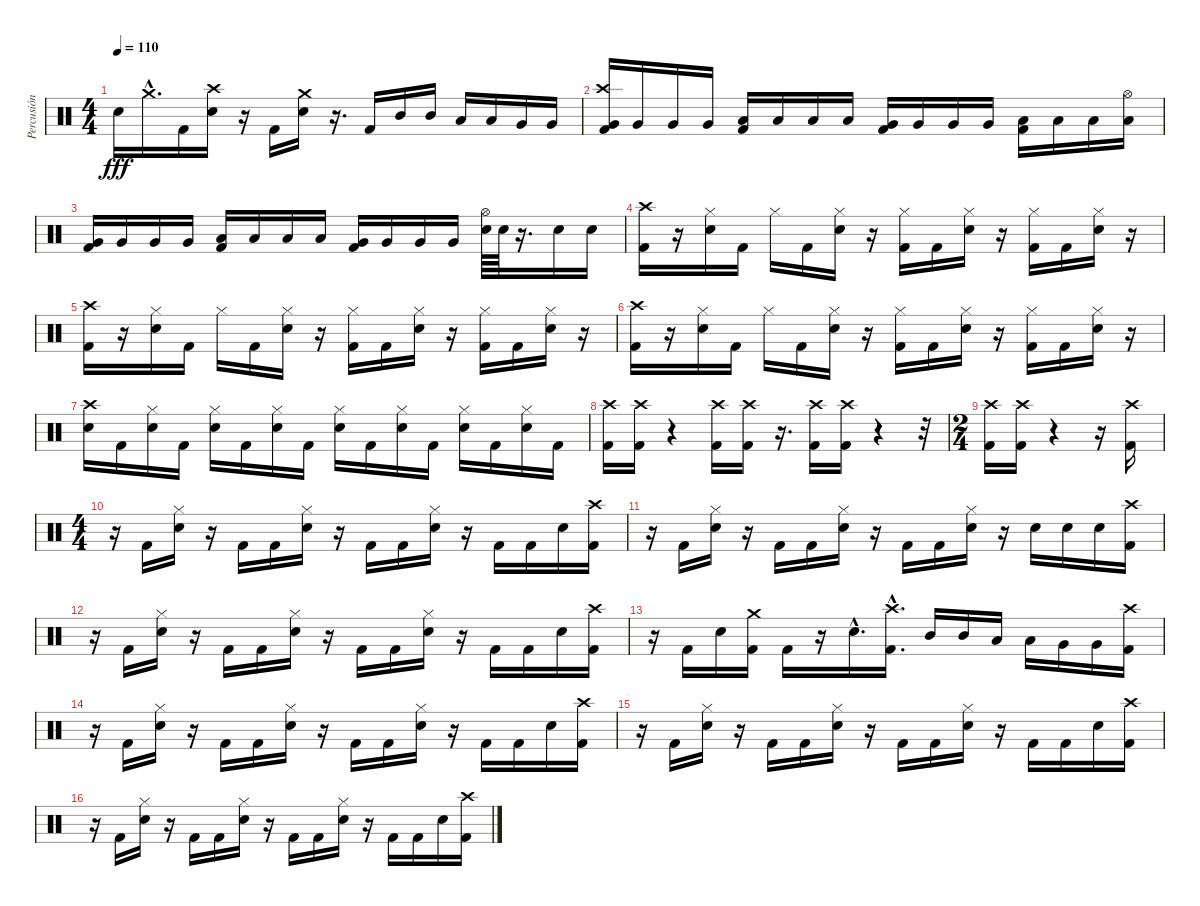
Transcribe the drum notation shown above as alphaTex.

\track ("Percusión" "Percusión") {instrument percussion}
\staff {score}
\articulation defaults
\ts (4 4)
\tempo 110
\clef neutral
\ks c "Electric Snare (hit)".16{dy fff} "Crash medium (hit)"{hac}.16{d} "Kick (hit) 2".16
("Electric Snare (hit)" "Crash high (hit)").16 r.16 "Kick (hit) 2".16 ("Electric Snare (hit)" "Crash medium (hit)").16 r.16{d} "Kick (hit) 2".16 "Mid Tom (hit)".16 "Mid Tom (hit)".16 "Low Tom (hit)".16 "Low Tom (hit)".16 "Very Low Tom (hit)".16 "Very Low Tom (hit)".16 |
("Crash high (hit)" "Kick (hit) 2" "Very Low Tom (hit)").16 "Very Low Tom (hit)".16 "Very Low Tom (hit)".16 "Very Low Tom (hit)".16 ("Kick (hit) 2" "Low Tom (hit)").16 "Low Tom (hit)".16 "Low Tom (hit)".16 "Low Tom (hit)".16 ("Kick (hit) 2" "Very Low Tom (hit)").16 "Very Low Tom (hit)".16 "Very Low Tom (hit)".16 "Very Low Tom (hit)".16 ("Kick (hit) 2" "Low Tom (hit)").16 "Low Tom (hit)".16 "Low Tom (hit)".16 ("Hi-Hat (open)" "Low Tom (hit)").16 |
("Kick (hit) 2" "Very Low Tom (hit)").16 "Very Low Tom (hit)".16 "Very Low Tom (hit)".16 "Very Low Tom (hit)".16 ("Kick (hit) 2" "Low Tom (hit)").16 "Low Tom (hit)".16 "Low Tom (hit)".16 "Low Tom (hit)".16 ("Kick (hit) 2" "Very Low Tom (hit)").16 "Very Low Tom (hit)".16 "Very Low Tom (hit)".16 "Very Low Tom (hit)".16 ("Electric Snare (hit)" "Hi-Hat (open)").64 "Electric Snare (hit)".64 r.16{d} "Electric Snare (hit)".16 "Electric Snare (hit)".16 |
("Kick (hit) 2" "Crash high (hit)").16 r.16 ("Electric Snare (hit)" "Hi-Hat (closed)").16 "Kick (hit) 2".16 "Hi-Hat (closed)".16 "Kick (hit) 2".16 ("Electric Snare (hit)" "Hi-Hat (closed)").16 r.16 ("Kick (hit) 2" "Hi-Hat (closed)").16 "Kick (hit) 2".16 ("Electric Snare (hit)" "Hi-Hat (closed)").16 r.16 ("Kick (hit) 2" "Hi-Hat (closed)").16 "Kick (hit) 2".16 ("Electric Snare (hit)" "Hi-Hat (closed)").16 r.16 |
("Kick (hit) 2" "Crash high (hit)").16 r.16 ("Electric Snare (hit)" "Hi-Hat (closed)").16 "Kick (hit) 2".16 "Hi-Hat (closed)".16 "Kick (hit) 2".16 ("Electric Snare (hit)" "Hi-Hat (closed)").16 r.16 ("Kick (hit) 2" "Hi-Hat (closed)").16 "Kick (hit) 2".16 ("Electric Snare (hit)" "Hi-Hat (closed)").16 r.16 ("Kick (hit) 2" "Hi-Hat (closed)").16 "Kick (hit) 2".16 ("Electric Snare (hit)" "Hi-Hat (closed)").16 r.16 |
("Kick (hit) 2" "Crash high (hit)").16 r.16 ("Electric Snare (hit)" "Hi-Hat (closed)").16 "Kick (hit) 2".16 "Hi-Hat (closed)".16 "Kick (hit) 2".16 ("Electric Snare (hit)" "Hi-Hat (closed)").16 r.16 ("Kick (hit) 2" "Hi-Hat (closed)").16 "Kick (hit) 2".16 ("Electric Snare (hit)" "Hi-Hat (closed)").16 r.16 ("Kick (hit) 2" "Hi-Hat (closed)").16 "Kick (hit) 2".16 ("Electric Snare (hit)" "Hi-Hat (closed)").16 r.16 |
("Crash high (hit)" "Electric Snare (hit)").16 "Kick (hit) 2".16 ("Hi-Hat (closed)" "Electric Snare (hit)").16 "Kick (hit) 2".16 ("Hi-Hat (closed)" "Electric Snare (hit)").16 "Kick (hit) 2".16 ("Hi-Hat (closed)" "Electric Snare (hit)").16 "Kick (hit) 2".16 ("Hi-Hat (closed)" "Electric Snare (hit)").16 "Kick (hit) 2".16 ("Hi-Hat (closed)" "Electric Snare (hit)").16 "Kick (hit) 2".16 ("Hi-Hat (closed)" "Electric Snare (hit)").16 "Kick (hit) 2".16 ("Hi-Hat (closed)" "Electric Snare (hit)").16 "Kick (hit) 2".16 |
("Kick (hit) 2" "Crash high (hit)").16 ("Kick (hit) 2" "Crash high (hit)").16 r.4 ("Kick (hit) 2" "Crash high (hit)").16 ("Kick (hit) 2" "Crash high (hit)").16 r.16{d} ("Kick (hit) 2" "Crash high (hit)").16 ("Kick (hit) 2" "Crash high (hit)").16 r.4 r.32 |
\ts (2 4)
("Kick (hit) 2" "Crash high (hit)").16 ("Kick (hit) 2" "Crash high (hit)").16 r.4 r.16 ("Kick (hit) 2" "Crash high (hit)").16 |
\ts (4 4)
r.16 "Kick (hit) 2".16 ("Electric Snare (hit)" "Hi-Hat (closed)").16 r.16 "Kick (hit) 2".16 "Kick (hit) 2".16 ("Electric Snare (hit)" "Hi-Hat (closed)").16 r.16 "Kick (hit) 2".16 "Kick (hit) 2".16 ("Electric Snare (hit)" "Hi-Hat (closed)").16 r.16 "Kick (hit) 2".16 "Kick (hit) 2".16 "Electric Snare (hit)".16 ("Kick (hit) 2" "Crash high (hit)").16 |
r.16 "Kick (hit) 2".16 ("Electric Snare (hit)" "Hi-Hat (closed)").16 r.16 "Kick (hit) 2".16 "Kick (hit) 2".16 ("Electric Snare (hit)" "Hi-Hat (closed)").16 r.16 "Kick (hit) 2".16 "Kick (hit) 2".16 ("Electric Snare (hit)" "Hi-Hat (closed)").16 r.16 "Electric Snare (hit)".16 "Electric Snare (hit)".16 "Electric Snare (hit)".16 ("Kick (hit) 2" "Crash high (hit)").16 |
r.16 "Kick (hit) 2".16 ("Electric Snare (hit)" "Hi-Hat (closed)").16 r.16 "Kick (hit) 2".16 "Kick (hit) 2".16 ("Electric Snare (hit)" "Hi-Hat (closed)").16 r.16 "Kick (hit) 2".16 "Kick (hit) 2".16 ("Electric Snare (hit)" "Hi-Hat (closed)").16 r.16 "Kick (hit) 2".16 "Kick (hit) 2".16 "Electric Snare (hit)".16 ("Kick (hit) 2" "Crash high (hit)").16 |
r.16 "Kick (hit) 2".16 "Electric Snare (hit)".16 ("Kick (hit) 2" "Crash medium (hit)").16 "Kick (hit) 2".16 r.16 "Electric Snare (hit)"{hac}.16{d} ("Kick (hit) 2"{hac} "Crash high (hit)"{hac}).16{d} "Mid Tom (hit)".16 "Mid Tom (hit)".16 "Low Tom (hit)".16 "Low Tom (hit)".16 "Very Low Tom (hit)".16 "Very Low Tom (hit)".16 ("Kick (hit) 2" "Crash high (hit)").16 |
r.16 "Kick (hit) 2".16 ("Electric Snare (hit)" "Hi-Hat (closed)").16 r.16 "Kick (hit) 2".16 "Kick (hit) 2".16 ("Electric Snare (hit)" "Hi-Hat (closed)").16 r.16 "Kick (hit) 2".16 "Kick (hit) 2".16 ("Electric Snare (hit)" "Hi-Hat (closed)").16 r.16 "Kick (hit) 2".16 "Kick (hit) 2".16 "Electric Snare (hit)".16 ("Kick (hit) 2" "Crash high (hit)").16 |
r.16 "Kick (hit) 2".16 ("Electric Snare (hit)" "Hi-Hat (closed)").16 r.16 "Kick (hit) 2".16 "Kick (hit) 2".16 ("Electric Snare (hit)" "Hi-Hat (closed)").16 r.16 "Kick (hit) 2".16 "Kick (hit) 2".16 ("Electric Snare (hit)" "Hi-Hat (closed)").16 r.16 "Kick (hit) 2".16 "Kick (hit) 2".16 "Electric Snare (hit)".16 ("Kick (hit) 2" "Crash high (hit)").16 |
r.16 "Kick (hit) 2".16 ("Electric Snare (hit)" "Hi-Hat (closed)").16 r.16 "Kick (hit) 2".16 "Kick (hit) 2".16 ("Electric Snare (hit)" "Hi-Hat (closed)").16 r.16 "Kick (hit) 2".16 "Kick (hit) 2".16 ("Electric Snare (hit)" "Hi-Hat (closed)").16 r.16 "Kick (hit) 2".16 "Kick (hit) 2".16 "Electric Snare (hit)".16 ("Kick (hit) 2" "Crash high (hit)").16
